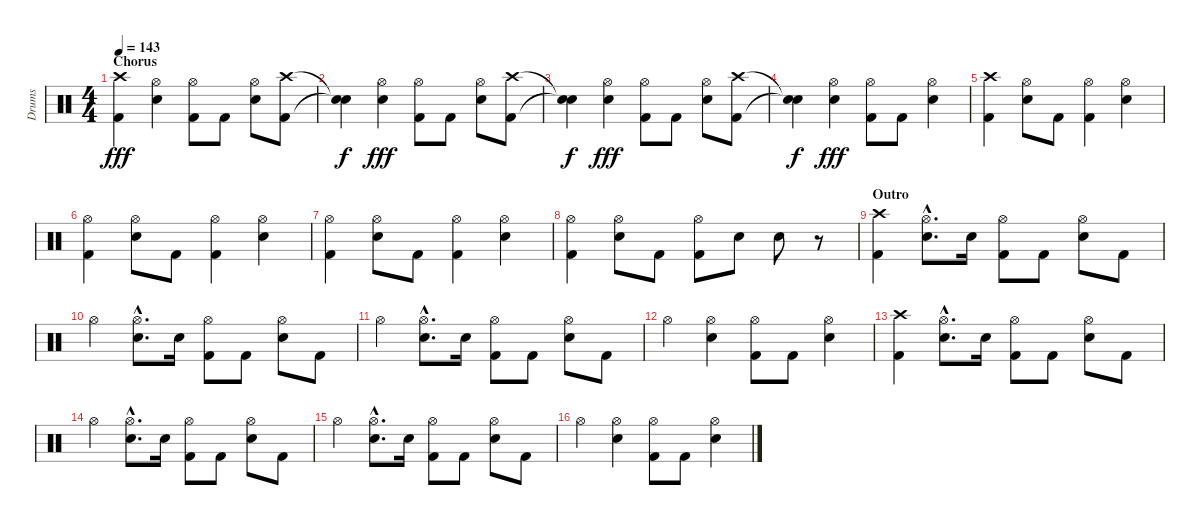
\track ("Drums" "Drums") {instrument percussion}
\staff {score}
\articulation defaults
\ts (4 4)
\section ("" "Chorus")
\tempo 143
\clef neutral
\ks c
("Crash high (hit)" "Kick (hit) 2").4{dy fff} ("Hi-Hat (open)" "Snare (hit) 2").4 ("Hi-Hat (open)" "Kick (hit) 2").8 "Kick (hit) 2".8 ("Hi-Hat (open)" "Snare (hit) 2").8 ("Crash high (hit)" "Kick (hit) 2").8 |
("Snare (hit)"{t} "Snare (hit)"{t}).4{dy f} ("Hi-Hat (open)" "Snare (hit) 2").4{dy fff} ("Hi-Hat (open)" "Kick (hit) 2").8 "Kick (hit) 2".8 ("Hi-Hat (open)" "Snare (hit) 2").8 ("Crash high (hit)" "Kick (hit) 2").8 |
("Snare (hit)"{t} "Snare (hit)"{t}).4{dy f} ("Hi-Hat (open)" "Snare (hit) 2").4{dy fff} ("Hi-Hat (open)" "Kick (hit) 2").8 "Kick (hit) 2".8 ("Hi-Hat (open)" "Snare (hit) 2").8 ("Crash high (hit)" "Kick (hit) 2").8 |
("Snare (hit)"{t} "Snare (hit)"{t}).4{dy f} ("Hi-Hat (open)" "Snare (hit) 2").4{dy fff} ("Hi-Hat (open)" "Kick (hit) 2").8 "Kick (hit) 2".8 ("Hi-Hat (open)" "Snare (hit) 2").4 |
("Crash high (hit)" "Kick (hit) 2").4 ("Hi-Hat (open)" "Snare (hit) 2").8 "Kick (hit) 2".8 ("Hi-Hat (open)" "Kick (hit) 2").4 ("Hi-Hat (open)" "Snare (hit) 2").4 |
("Hi-Hat (open)" "Kick (hit) 2").4 ("Hi-Hat (open)" "Snare (hit) 2").8 "Kick (hit) 2".8 ("Hi-Hat (open)" "Kick (hit) 2").4 ("Hi-Hat (open)" "Snare (hit) 2").4 |
("Hi-Hat (open)" "Kick (hit) 2").4 ("Hi-Hat (open)" "Snare (hit) 2").8 "Kick (hit) 2".8 ("Hi-Hat (open)" "Kick (hit) 2").4 ("Hi-Hat (open)" "Snare (hit) 2").4 |
("Hi-Hat (open)" "Kick (hit) 2").4 ("Hi-Hat (open)" "Snare (hit) 2").8 "Kick (hit) 2".8 ("Hi-Hat (open)" "Kick (hit) 2").8 "Snare (hit) 2".8 "Snare (hit) 2".8 r.8 |
\section ("" "Outro")
("Crash high (hit)" "Kick (hit) 2").4 ("Hi-Hat (open)"{hac} "Snare (hit) 2"{hac}).8{d} "Snare (hit) 2".16 ("Hi-Hat (open)" "Kick (hit) 2").8 "Kick (hit) 2".8 ("Hi-Hat (open)" "Snare (hit) 2").8 "Kick (hit) 2".8 |
"Hi-Hat (open)".4 ("Hi-Hat (open)"{hac} "Snare (hit) 2"{hac}).8{d} "Snare (hit) 2".16 ("Hi-Hat (open)" "Kick (hit) 2").8 "Kick (hit) 2".8 ("Hi-Hat (open)" "Snare (hit) 2").8 "Kick (hit) 2".8 |
"Hi-Hat (open)".4 ("Hi-Hat (open)"{hac} "Snare (hit) 2"{hac}).8{d} "Snare (hit) 2".16 ("Hi-Hat (open)" "Kick (hit) 2").8 "Kick (hit) 2".8 ("Hi-Hat (open)" "Snare (hit) 2").8 "Kick (hit) 2".8 |
"Hi-Hat (open)".4 ("Hi-Hat (open)" "Snare (hit) 2").4 ("Hi-Hat (open)" "Kick (hit) 2").8 "Kick (hit) 2".8 ("Hi-Hat (open)" "Snare (hit) 2").4 |
("Crash high (hit)" "Kick (hit) 2").4 ("Hi-Hat (open)"{hac} "Snare (hit) 2"{hac}).8{d} "Snare (hit) 2".16 ("Hi-Hat (open)" "Kick (hit) 2").8 "Kick (hit) 2".8 ("Hi-Hat (open)" "Snare (hit) 2").8 "Kick (hit) 2".8 |
"Hi-Hat (open)".4 ("Hi-Hat (open)"{hac} "Snare (hit) 2"{hac}).8{d} "Snare (hit) 2".16 ("Hi-Hat (open)" "Kick (hit) 2").8 "Kick (hit) 2".8 ("Hi-Hat (open)" "Snare (hit) 2").8 "Kick (hit) 2".8 |
"Hi-Hat (open)".4 ("Hi-Hat (open)"{hac} "Snare (hit) 2"{hac}).8{d} "Snare (hit) 2".16 ("Hi-Hat (open)" "Kick (hit) 2").8 "Kick (hit) 2".8 ("Hi-Hat (open)" "Snare (hit) 2").8 "Kick (hit) 2".8 |
"Hi-Hat (open)".4 ("Hi-Hat (open)" "Snare (hit) 2").4 ("Hi-Hat (open)" "Kick (hit) 2").8 "Kick (hit) 2".8 ("Hi-Hat (open)" "Snare (hit) 2").4
